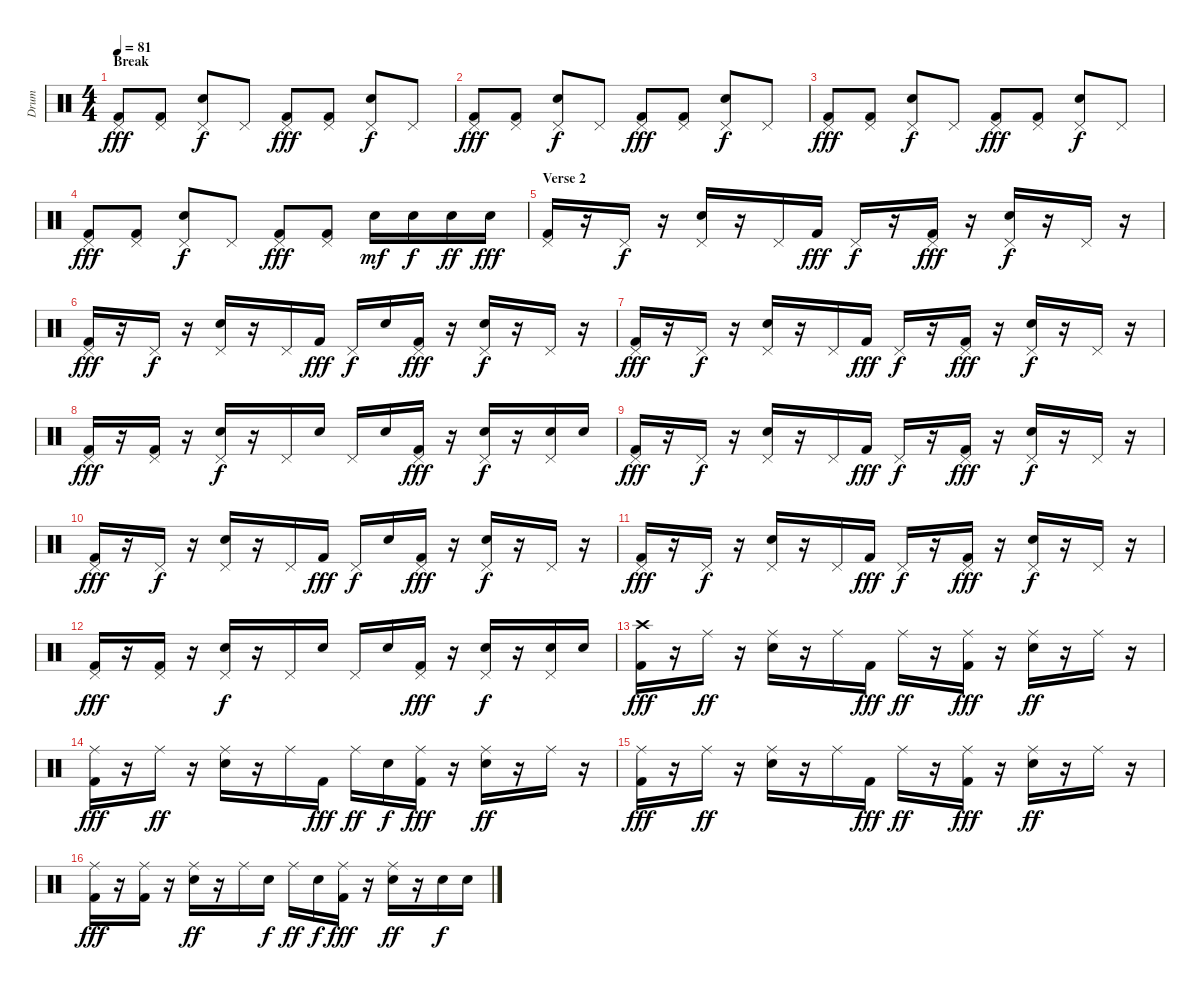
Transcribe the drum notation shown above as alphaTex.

\track ("Drum" "Drum") {instrument percussion}
\staff {score}
\articulation defaults
\ts (4 4)
\section ("" "Break")
\tempo 81
\clef neutral
\ks c
("Pedal Hi-Hat (hit)" "Kick (hit) 2").8{dy fff} ("Pedal Hi-Hat (hit)" "Kick (hit) 2").8 ("Pedal Hi-Hat (hit)" "Electric Snare (hit)").8{dy f} "Pedal Hi-Hat (hit)".8 ("Pedal Hi-Hat (hit)" "Kick (hit) 2").8{dy fff} ("Pedal Hi-Hat (hit)" "Kick (hit) 2").8 ("Pedal Hi-Hat (hit)" "Electric Snare (hit)").8{dy f} "Pedal Hi-Hat (hit)".8 |
("Pedal Hi-Hat (hit)" "Kick (hit) 2").8{dy fff} ("Pedal Hi-Hat (hit)" "Kick (hit) 2").8 ("Pedal Hi-Hat (hit)" "Electric Snare (hit)").8{dy f} "Pedal Hi-Hat (hit)".8 ("Pedal Hi-Hat (hit)" "Kick (hit) 2").8{dy fff} ("Pedal Hi-Hat (hit)" "Kick (hit) 2").8 ("Pedal Hi-Hat (hit)" "Electric Snare (hit)").8{dy f} "Pedal Hi-Hat (hit)".8 |
("Pedal Hi-Hat (hit)" "Kick (hit) 2").8{dy fff} ("Pedal Hi-Hat (hit)" "Kick (hit) 2").8 ("Pedal Hi-Hat (hit)" "Electric Snare (hit)").8{dy f} "Pedal Hi-Hat (hit)".8 ("Pedal Hi-Hat (hit)" "Kick (hit) 2").8{dy fff} ("Pedal Hi-Hat (hit)" "Kick (hit) 2").8 ("Pedal Hi-Hat (hit)" "Electric Snare (hit)").8{dy f} "Pedal Hi-Hat (hit)".8 |
("Pedal Hi-Hat (hit)" "Kick (hit) 2").8{dy fff} ("Pedal Hi-Hat (hit)" "Kick (hit) 2").8 ("Pedal Hi-Hat (hit)" "Electric Snare (hit)").8{dy f} "Pedal Hi-Hat (hit)".8 ("Pedal Hi-Hat (hit)" "Kick (hit) 2").8{dy fff} ("Pedal Hi-Hat (hit)" "Kick (hit) 2").8 "Electric Snare (hit)".16{dy mf} "Electric Snare (hit)".16{dy f} "Electric Snare (hit)".16{dy ff} "Electric Snare (hit)".16{dy fff} |
\section ("" "Verse 2")
("Pedal Hi-Hat (hit)" "Kick (hit) 2").16 r.16 "Pedal Hi-Hat (hit)".16{dy f} r.16 ("Pedal Hi-Hat (hit)" "Electric Snare (hit)").16 r.16 "Pedal Hi-Hat (hit)".16 "Kick (hit) 2".16{dy fff} "Pedal Hi-Hat (hit)".16{dy f} r.16 ("Pedal Hi-Hat (hit)" "Kick (hit) 2").16{dy fff} r.16 ("Pedal Hi-Hat (hit)" "Electric Snare (hit)").16{dy f} r.16 "Pedal Hi-Hat (hit)".16 r.16 |
("Pedal Hi-Hat (hit)" "Kick (hit) 2").16{dy fff} r.16 "Pedal Hi-Hat (hit)".16{dy f} r.16 ("Pedal Hi-Hat (hit)" "Electric Snare (hit)").16 r.16 "Pedal Hi-Hat (hit)".16 "Kick (hit) 2".16{dy fff} "Pedal Hi-Hat (hit)".16{dy f} "Electric Snare (hit)".16 ("Pedal Hi-Hat (hit)" "Kick (hit) 2").16{dy fff} r.16 ("Pedal Hi-Hat (hit)" "Electric Snare (hit)").16{dy f} r.16 "Pedal Hi-Hat (hit)".16 r.16 |
("Pedal Hi-Hat (hit)" "Kick (hit) 2").16{dy fff} r.16 "Pedal Hi-Hat (hit)".16{dy f} r.16 ("Pedal Hi-Hat (hit)" "Electric Snare (hit)").16 r.16 "Pedal Hi-Hat (hit)".16 "Kick (hit) 2".16{dy fff} "Pedal Hi-Hat (hit)".16{dy f} r.16 ("Pedal Hi-Hat (hit)" "Kick (hit) 2").16{dy fff} r.16 ("Pedal Hi-Hat (hit)" "Electric Snare (hit)").16{dy f} r.16 "Pedal Hi-Hat (hit)".16 r.16 |
("Pedal Hi-Hat (hit)" "Kick (hit) 2").16{dy fff} r.16 ("Pedal Hi-Hat (hit)" "Kick (hit) 2").16 r.16 ("Pedal Hi-Hat (hit)" "Electric Snare (hit)").16{dy f} r.16 "Pedal Hi-Hat (hit)".16 "Electric Snare (hit)".16 "Pedal Hi-Hat (hit)".16 "Electric Snare (hit)".16 ("Pedal Hi-Hat (hit)" "Kick (hit) 2").16{dy fff} r.16 ("Pedal Hi-Hat (hit)" "Electric Snare (hit)").16{dy f} r.16 ("Pedal Hi-Hat (hit)" "Electric Snare (hit)").16 "Electric Snare (hit)".16 |
("Pedal Hi-Hat (hit)" "Kick (hit) 2").16{dy fff} r.16 "Pedal Hi-Hat (hit)".16{dy f} r.16 ("Pedal Hi-Hat (hit)" "Electric Snare (hit)").16 r.16 "Pedal Hi-Hat (hit)".16 "Kick (hit) 2".16{dy fff} "Pedal Hi-Hat (hit)".16{dy f} r.16 ("Pedal Hi-Hat (hit)" "Kick (hit) 2").16{dy fff} r.16 ("Pedal Hi-Hat (hit)" "Electric Snare (hit)").16{dy f} r.16 "Pedal Hi-Hat (hit)".16 r.16 |
("Pedal Hi-Hat (hit)" "Kick (hit) 2").16{dy fff} r.16 "Pedal Hi-Hat (hit)".16{dy f} r.16 ("Pedal Hi-Hat (hit)" "Electric Snare (hit)").16 r.16 "Pedal Hi-Hat (hit)".16 "Kick (hit) 2".16{dy fff} "Pedal Hi-Hat (hit)".16{dy f} "Electric Snare (hit)".16 ("Pedal Hi-Hat (hit)" "Kick (hit) 2").16{dy fff} r.16 ("Pedal Hi-Hat (hit)" "Electric Snare (hit)").16{dy f} r.16 "Pedal Hi-Hat (hit)".16 r.16 |
("Pedal Hi-Hat (hit)" "Kick (hit) 2").16{dy fff} r.16 "Pedal Hi-Hat (hit)".16{dy f} r.16 ("Pedal Hi-Hat (hit)" "Electric Snare (hit)").16 r.16 "Pedal Hi-Hat (hit)".16 "Kick (hit) 2".16{dy fff} "Pedal Hi-Hat (hit)".16{dy f} r.16 ("Pedal Hi-Hat (hit)" "Kick (hit) 2").16{dy fff} r.16 ("Pedal Hi-Hat (hit)" "Electric Snare (hit)").16{dy f} r.16 "Pedal Hi-Hat (hit)".16 r.16 |
("Pedal Hi-Hat (hit)" "Kick (hit) 2").16{dy fff} r.16 ("Pedal Hi-Hat (hit)" "Kick (hit) 2").16 r.16 ("Pedal Hi-Hat (hit)" "Electric Snare (hit)").16{dy f} r.16 "Pedal Hi-Hat (hit)".16 "Electric Snare (hit)".16 "Pedal Hi-Hat (hit)".16 "Electric Snare (hit)".16 ("Pedal Hi-Hat (hit)" "Kick (hit) 2").16{dy fff} r.16 ("Pedal Hi-Hat (hit)" "Electric Snare (hit)").16{dy f} r.16 ("Pedal Hi-Hat (hit)" "Electric Snare (hit)").16 "Electric Snare (hit)".16 |
("Crash high (hit)" "Kick (hit) 2").16{dy fff} r.16 "Ride (middle)".16{dy ff} r.16 ("Ride (middle)" "Electric Snare (hit)").16 r.16 "Ride (middle)".16 "Kick (hit) 2".16{dy fff} "Ride (middle)".16{dy ff} r.16 ("Ride (middle)" "Kick (hit) 2").16{dy fff} r.16 ("Ride (middle)" "Electric Snare (hit)").16{dy ff} r.16 "Ride (middle)".16 r.16 |
("Ride (middle)" "Kick (hit) 2").16{dy fff} r.16 "Ride (middle)".16{dy ff} r.16 ("Ride (middle)" "Electric Snare (hit)").16 r.16 "Ride (middle)".16 "Kick (hit) 2".16{dy fff} "Ride (middle)".16{dy ff} "Electric Snare (hit)".16{dy f} ("Ride (middle)" "Kick (hit) 2").16{dy fff} r.16 ("Ride (middle)" "Electric Snare (hit)").16{dy ff} r.16 "Ride (middle)".16 r.16 |
("Ride (middle)" "Kick (hit) 2").16{dy fff} r.16 "Ride (middle)".16{dy ff} r.16 ("Ride (middle)" "Electric Snare (hit)").16 r.16 "Ride (middle)".16 "Kick (hit) 2".16{dy fff} "Ride (middle)".16{dy ff} r.16 ("Ride (middle)" "Kick (hit) 2").16{dy fff} r.16 ("Ride (middle)" "Electric Snare (hit)").16{dy ff} r.16 "Ride (middle)".16 r.16 |
("Ride (middle)" "Kick (hit) 2").16{dy fff} r.16 ("Ride (middle)" "Kick (hit) 2").16 r.16 ("Ride (middle)" "Electric Snare (hit)").16{dy ff} r.16 "Ride (middle)".16 "Electric Snare (hit)".16{dy f} "Ride (middle)".16{dy ff} "Electric Snare (hit)".16{dy f} ("Ride (middle)" "Kick (hit) 2").16{dy fff} r.16 ("Ride (middle)" "Electric Snare (hit)").16{dy ff} r.16 "Electric Snare (hit)".16{dy f} "Electric Snare (hit)".16
